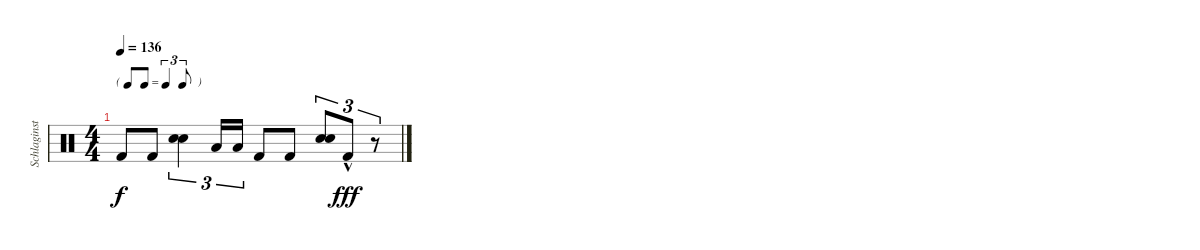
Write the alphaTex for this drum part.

\track ("Schlaginstrumente - Auswahl" "Schlaginst") {instrument percussion}
\staff {score}
\articulation defaults
\ts (4 4)
\tf triplet8th
\tempo 136
\clef neutral
\ks c "Kick (hit) 2".8{dy f} "Kick (hit) 2".8
("Snare (hit) 2" "Snare (hit) 2").4{tu (3 2) bd 240} "Low Tom (hit)".16{tu (3 2)} "Low Floor Tom (hit)".16{tu (3 2)} "Kick (hit) 2".8 "Kick (hit) 2".8 ("Snare (hit) 2" "Snare (hit) 2").8{tu (3 2) bd 240} "Kick (hit) 2"{hac}.8{tu (3 2) dy fff} r.8{tu (3 2)}
